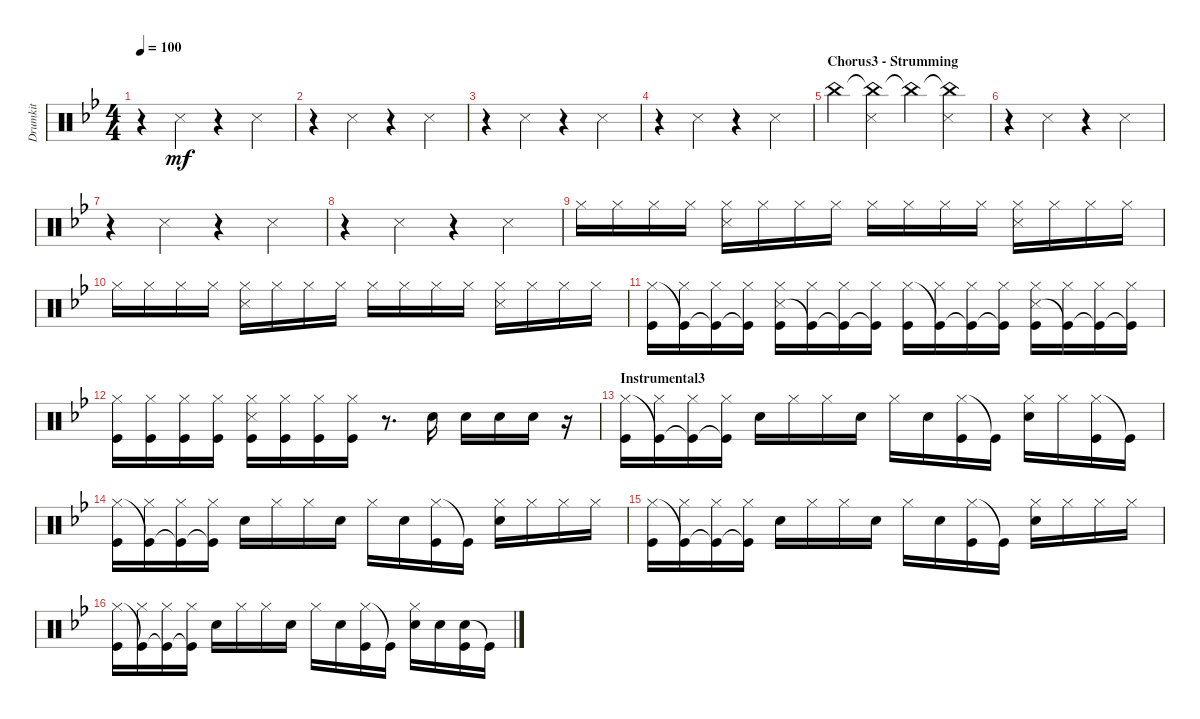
\track ("Drumkit" "Drumkit") {instrument percussion}
\staff {score}
\articulation defaults
\ts (4 4)
\tempo 100
\clef neutral
\ks gminor
r.4{dy mf} "Snare (side stick) 3".4 r.4 "Snare (side stick) 3".4 |
r.4 "Snare (side stick) 3".4 r.4 "Snare (side stick) 3".4 |
r.4 "Snare (side stick) 3".4 r.4 "Snare (side stick) 3".4 |
r.4 "Snare (side stick) 3".4 r.4 "Snare (side stick) 3".4 |
\section ("" "Chorus3 - Strumming")
"China (hit)".4 ("China (hit)"{t} "Snare (side stick) 3").4 "China (hit)"{t}.4 ("China (hit)"{t} "Snare (side stick) 3").4 |
r.4 "Snare (side stick) 3".4 r.4 "Snare (side stick) 3".4 |
r.4 "Snare (side stick) 3".4 r.4 "Snare (side stick) 3".4 |
r.4 "Snare (side stick) 3".4 r.4 "Snare (side stick) 3".4 |
"Hi-Hat (closed)".16 "Hi-Hat (closed)".16 "Hi-Hat (closed)".16 "Hi-Hat (closed)".16 ("Snare (side stick) 3" "Hi-Hat (closed)").16 "Hi-Hat (closed)".16 "Hi-Hat (closed)".16 "Hi-Hat (closed)".16 "Hi-Hat (closed)".16 "Hi-Hat (closed)".16 "Hi-Hat (closed)".16 "Hi-Hat (closed)".16 ("Snare (side stick) 3" "Hi-Hat (closed)").16 "Hi-Hat (closed)".16 "Hi-Hat (closed)".16 "Hi-Hat (closed)".16 |
"Hi-Hat (closed)".16 "Hi-Hat (closed)".16 "Hi-Hat (closed)".16 "Hi-Hat (closed)".16 ("Snare (side stick) 3" "Hi-Hat (closed)").16 "Hi-Hat (closed)".16 "Hi-Hat (closed)".16 "Hi-Hat (closed)".16 "Hi-Hat (closed)".16 "Hi-Hat (closed)".16 "Hi-Hat (closed)".16 "Hi-Hat (closed)".16 ("Snare (side stick) 3" "Hi-Hat (closed)").16 "Hi-Hat (closed)".16 "Hi-Hat (closed)".16 "Hi-Hat (closed)".16 |
("Hi-Hat (closed)" "Kick (hit)").16 ("Kick (hit)"{t} "Hi-Hat (closed)").16 ("Kick (hit)"{t} "Hi-Hat (closed)").16 ("Kick (hit)"{t} "Hi-Hat (closed)").16 ("Snare (side stick) 3" "Hi-Hat (closed)" "Kick (hit)").16 ("Kick (hit)"{t} "Hi-Hat (closed)").16 ("Kick (hit)"{t} "Hi-Hat (closed)").16 ("Kick (hit)"{t} "Hi-Hat (closed)").16 ("Hi-Hat (closed)" "Kick (hit)").16 ("Kick (hit)"{t} "Hi-Hat (closed)").16 ("Kick (hit)"{t} "Hi-Hat (closed)").16 ("Kick (hit)"{t} "Hi-Hat (closed)").16 ("Snare (side stick) 3" "Hi-Hat (closed)" "Kick (hit)").16 ("Kick (hit)"{t} "Hi-Hat (closed)").16 ("Kick (hit)"{t} "Hi-Hat (closed)").16 ("Kick (hit)"{t} "Hi-Hat (closed)").16 |
("Kick (hit)" "Hi-Hat (closed)").16 ("Kick (hit)" "Hi-Hat (closed)").16 ("Kick (hit)" "Hi-Hat (closed)").16 ("Kick (hit)" "Hi-Hat (closed)").16 ("Kick (hit)" "Snare (side stick) 3" "Hi-Hat (closed)").16 ("Kick (hit)" "Hi-Hat (closed)").16 ("Kick (hit)" "Hi-Hat (closed)").16 ("Kick (hit)" "Hi-Hat (closed)").16 r.8{d} "Snare (hit) 2".16 "Electric Snare (hit)".16 "Electric Snare (hit)".16 "Snare (hit) 2".16 r.16 |
\section ("" "Instrumental3")
("Hi-Hat (closed)" "Kick (hit)").16 ("Kick (hit)"{t} "Hi-Hat (closed)").16 ("Kick (hit)"{t} "Hi-Hat (closed)").16 ("Kick (hit)"{t} "Hi-Hat (closed)").16 "Snare (hit) 2".16 "Hi-Hat (closed)".16 "Hi-Hat (closed)".16 "Electric Snare (hit)".16 "Hi-Hat (closed)".16 "Electric Snare (hit)".16 ("Hi-Hat (closed)" "Kick (hit)").16 "Kick (hit)"{t}.16 ("Hi-Hat (closed)" "Snare (hit) 2").16 "Hi-Hat (closed)".16 ("Hi-Hat (closed)" "Kick (hit)").16 "Kick (hit)"{t}.16 |
("Hi-Hat (closed)" "Kick (hit)").16 ("Kick (hit)"{t} "Hi-Hat (closed)").16 ("Kick (hit)"{t} "Hi-Hat (closed)").16 ("Kick (hit)"{t} "Hi-Hat (closed)").16 "Snare (hit) 2".16 "Hi-Hat (closed)".16 "Hi-Hat (closed)".16 "Electric Snare (hit)".16 "Hi-Hat (closed)".16 "Electric Snare (hit)".16 ("Hi-Hat (closed)" "Kick (hit)").16 "Kick (hit)"{t}.16 ("Hi-Hat (closed)" "Snare (hit) 2").16 "Hi-Hat (closed)".16 "Hi-Hat (closed)".16 "Hi-Hat (closed)".16 |
("Hi-Hat (closed)" "Kick (hit)").16 ("Kick (hit)"{t} "Hi-Hat (closed)").16 ("Kick (hit)"{t} "Hi-Hat (closed)").16 ("Kick (hit)"{t} "Hi-Hat (closed)").16 "Snare (hit) 2".16 "Hi-Hat (closed)".16 "Hi-Hat (closed)".16 "Electric Snare (hit)".16 "Hi-Hat (closed)".16 "Electric Snare (hit)".16 ("Hi-Hat (closed)" "Kick (hit)").16 "Kick (hit)"{t}.16 ("Hi-Hat (closed)" "Snare (hit) 2").16 "Hi-Hat (closed)".16 "Hi-Hat (closed)".16 "Hi-Hat (closed)".16 |
("Hi-Hat (closed)" "Kick (hit)").16 ("Kick (hit)"{t} "Hi-Hat (closed)").16 ("Kick (hit)"{t} "Hi-Hat (closed)").16 ("Kick (hit)"{t} "Hi-Hat (closed)").16 "Snare (hit) 2".16 "Hi-Hat (closed)".16 "Hi-Hat (closed)".16 "Electric Snare (hit)".16 "Hi-Hat (closed)".16 "Electric Snare (hit)".16 ("Hi-Hat (closed)" "Kick (hit)").16 "Kick (hit)"{t}.16 ("Hi-Hat (closed)" "Snare (hit) 2").16 "Snare (hit) 2".16 ("Snare (hit) 2" "Kick (hit)").16 "Kick (hit)"{t}.16
